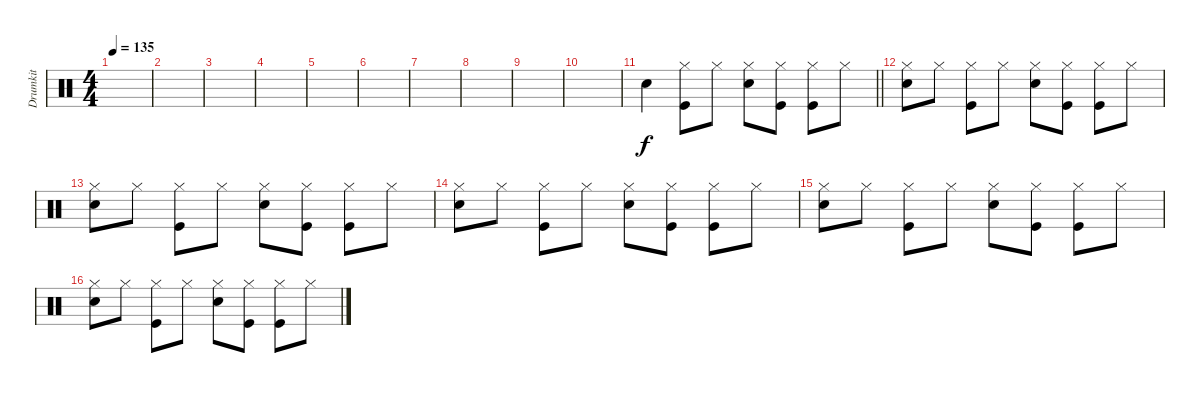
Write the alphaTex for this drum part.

\track ("Drumkit" "Drumkit") {instrument percussion}
\staff {score}
\articulation defaults
\ts (4 4)
\tempo 135
\clef neutral
\ks c
|
|
|
|
|
|
|
|
|
|
\barLineRight lightlight "Snare (hit) 2".4
("Hi-Hat (closed)" "Kick (hit)").8 "Hi-Hat (closed)".8 ("Hi-Hat (closed)" "Snare (hit) 2").8 ("Hi-Hat (closed)" "Kick (hit)").8 ("Hi-Hat (closed)" "Kick (hit)").8 "Hi-Hat (closed)".8 |
("Snare (hit) 2" "Hi-Hat (closed)").8 "Hi-Hat (closed)".8 ("Hi-Hat (closed)" "Kick (hit)").8 "Hi-Hat (closed)".8 ("Hi-Hat (closed)" "Snare (hit) 2").8 ("Hi-Hat (closed)" "Kick (hit)").8 ("Hi-Hat (closed)" "Kick (hit)").8 "Hi-Hat (closed)".8 |
("Snare (hit) 2" "Hi-Hat (closed)").8 "Hi-Hat (closed)".8 ("Hi-Hat (closed)" "Kick (hit)").8 "Hi-Hat (closed)".8 ("Hi-Hat (closed)" "Snare (hit) 2").8 ("Hi-Hat (closed)" "Kick (hit)").8 ("Hi-Hat (closed)" "Kick (hit)").8 "Hi-Hat (closed)".8 |
("Snare (hit) 2" "Hi-Hat (closed)").8 "Hi-Hat (closed)".8 ("Hi-Hat (closed)" "Kick (hit)").8 "Hi-Hat (closed)".8 ("Hi-Hat (closed)" "Snare (hit) 2").8 ("Hi-Hat (closed)" "Kick (hit)").8 ("Hi-Hat (closed)" "Kick (hit)").8 "Hi-Hat (closed)".8 |
("Snare (hit) 2" "Hi-Hat (closed)").8 "Hi-Hat (closed)".8 ("Hi-Hat (closed)" "Kick (hit)").8 "Hi-Hat (closed)".8 ("Hi-Hat (closed)" "Snare (hit) 2").8 ("Hi-Hat (closed)" "Kick (hit)").8 ("Hi-Hat (closed)" "Kick (hit)").8 "Hi-Hat (closed)".8 |
("Snare (hit) 2" "Hi-Hat (closed)").8 "Hi-Hat (closed)".8 ("Hi-Hat (closed)" "Kick (hit)").8 "Hi-Hat (closed)".8 ("Hi-Hat (closed)" "Snare (hit) 2").8 ("Hi-Hat (closed)" "Kick (hit)").8 ("Hi-Hat (closed)" "Kick (hit)").8 "Hi-Hat (closed)".8
